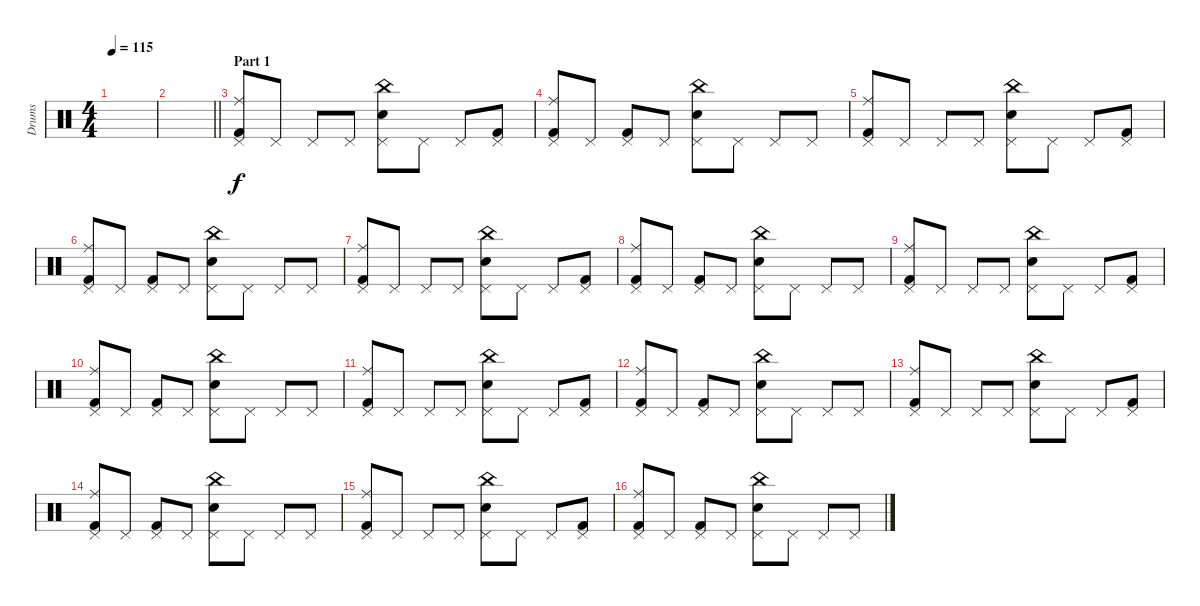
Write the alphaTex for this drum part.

\track ("Drums" "Drums") {instrument percussion}
\staff {score}
\articulation defaults
\ts (4 4)
\tempo 115
\clef neutral
\ks c
|
\barLineRight lightlight
|
\section ("" "Part 1")
("Pedal Hi-Hat (hit)" "Ride (middle)" "Kick (hit) 2").8 "Pedal Hi-Hat (hit)".8 "Pedal Hi-Hat (hit)".8 "Pedal Hi-Hat (hit)".8 ("Pedal Hi-Hat (hit)" "Electric Snare (hit)" "China (hit)").8 "Pedal Hi-Hat (hit)".8 "Pedal Hi-Hat (hit)".8 ("Pedal Hi-Hat (hit)" "Kick (hit) 2").8 |
("Pedal Hi-Hat (hit)" "Ride (middle)" "Kick (hit) 2").8 "Pedal Hi-Hat (hit)".8 ("Pedal Hi-Hat (hit)" "Kick (hit) 2").8 "Pedal Hi-Hat (hit)".8 ("Pedal Hi-Hat (hit)" "Electric Snare (hit)" "China (hit)").8 "Pedal Hi-Hat (hit)".8 "Pedal Hi-Hat (hit)".8 "Pedal Hi-Hat (hit)".8 |
("Pedal Hi-Hat (hit)" "Ride (middle)" "Kick (hit) 2").8 "Pedal Hi-Hat (hit)".8 "Pedal Hi-Hat (hit)".8 "Pedal Hi-Hat (hit)".8 ("Pedal Hi-Hat (hit)" "Electric Snare (hit)" "China (hit)").8 "Pedal Hi-Hat (hit)".8 "Pedal Hi-Hat (hit)".8 ("Pedal Hi-Hat (hit)" "Kick (hit) 2").8 |
("Pedal Hi-Hat (hit)" "Ride (middle)" "Kick (hit) 2").8 "Pedal Hi-Hat (hit)".8 ("Pedal Hi-Hat (hit)" "Kick (hit) 2").8 "Pedal Hi-Hat (hit)".8 ("Pedal Hi-Hat (hit)" "Electric Snare (hit)" "China (hit)").8 "Pedal Hi-Hat (hit)".8 "Pedal Hi-Hat (hit)".8 "Pedal Hi-Hat (hit)".8 |
("Pedal Hi-Hat (hit)" "Ride (middle)" "Kick (hit) 2").8 "Pedal Hi-Hat (hit)".8 "Pedal Hi-Hat (hit)".8 "Pedal Hi-Hat (hit)".8 ("Pedal Hi-Hat (hit)" "Electric Snare (hit)" "China (hit)").8 "Pedal Hi-Hat (hit)".8 "Pedal Hi-Hat (hit)".8 ("Pedal Hi-Hat (hit)" "Kick (hit) 2").8 |
("Pedal Hi-Hat (hit)" "Ride (middle)" "Kick (hit) 2").8 "Pedal Hi-Hat (hit)".8 ("Pedal Hi-Hat (hit)" "Kick (hit) 2").8 "Pedal Hi-Hat (hit)".8 ("Pedal Hi-Hat (hit)" "Electric Snare (hit)" "China (hit)").8 "Pedal Hi-Hat (hit)".8 "Pedal Hi-Hat (hit)".8 "Pedal Hi-Hat (hit)".8 |
("Pedal Hi-Hat (hit)" "Ride (middle)" "Kick (hit) 2").8 "Pedal Hi-Hat (hit)".8 "Pedal Hi-Hat (hit)".8 "Pedal Hi-Hat (hit)".8 ("Pedal Hi-Hat (hit)" "Electric Snare (hit)" "China (hit)").8 "Pedal Hi-Hat (hit)".8 "Pedal Hi-Hat (hit)".8 ("Pedal Hi-Hat (hit)" "Kick (hit) 2").8 |
("Pedal Hi-Hat (hit)" "Ride (middle)" "Kick (hit) 2").8 "Pedal Hi-Hat (hit)".8 ("Pedal Hi-Hat (hit)" "Kick (hit) 2").8 "Pedal Hi-Hat (hit)".8 ("Pedal Hi-Hat (hit)" "Electric Snare (hit)" "China (hit)").8 "Pedal Hi-Hat (hit)".8 "Pedal Hi-Hat (hit)".8 "Pedal Hi-Hat (hit)".8 |
("Pedal Hi-Hat (hit)" "Ride (middle)" "Kick (hit) 2").8 "Pedal Hi-Hat (hit)".8 "Pedal Hi-Hat (hit)".8 "Pedal Hi-Hat (hit)".8 ("Pedal Hi-Hat (hit)" "Electric Snare (hit)" "China (hit)").8 "Pedal Hi-Hat (hit)".8 "Pedal Hi-Hat (hit)".8 ("Pedal Hi-Hat (hit)" "Kick (hit) 2").8 |
("Pedal Hi-Hat (hit)" "Ride (middle)" "Kick (hit) 2").8 "Pedal Hi-Hat (hit)".8 ("Pedal Hi-Hat (hit)" "Kick (hit) 2").8 "Pedal Hi-Hat (hit)".8 ("Pedal Hi-Hat (hit)" "Electric Snare (hit)" "China (hit)").8 "Pedal Hi-Hat (hit)".8 "Pedal Hi-Hat (hit)".8 "Pedal Hi-Hat (hit)".8 |
("Pedal Hi-Hat (hit)" "Ride (middle)" "Kick (hit) 2").8 "Pedal Hi-Hat (hit)".8 "Pedal Hi-Hat (hit)".8 "Pedal Hi-Hat (hit)".8 ("Pedal Hi-Hat (hit)" "Electric Snare (hit)" "China (hit)").8 "Pedal Hi-Hat (hit)".8 "Pedal Hi-Hat (hit)".8 ("Pedal Hi-Hat (hit)" "Kick (hit) 2").8 |
("Pedal Hi-Hat (hit)" "Ride (middle)" "Kick (hit) 2").8 "Pedal Hi-Hat (hit)".8 ("Pedal Hi-Hat (hit)" "Kick (hit) 2").8 "Pedal Hi-Hat (hit)".8 ("Pedal Hi-Hat (hit)" "Electric Snare (hit)" "China (hit)").8 "Pedal Hi-Hat (hit)".8 "Pedal Hi-Hat (hit)".8 "Pedal Hi-Hat (hit)".8 |
("Pedal Hi-Hat (hit)" "Ride (middle)" "Kick (hit) 2").8 "Pedal Hi-Hat (hit)".8 "Pedal Hi-Hat (hit)".8 "Pedal Hi-Hat (hit)".8 ("Pedal Hi-Hat (hit)" "Electric Snare (hit)" "China (hit)").8 "Pedal Hi-Hat (hit)".8 "Pedal Hi-Hat (hit)".8 ("Pedal Hi-Hat (hit)" "Kick (hit) 2").8 |
("Pedal Hi-Hat (hit)" "Ride (middle)" "Kick (hit) 2").8 "Pedal Hi-Hat (hit)".8 ("Pedal Hi-Hat (hit)" "Kick (hit) 2").8 "Pedal Hi-Hat (hit)".8 ("Pedal Hi-Hat (hit)" "Electric Snare (hit)" "China (hit)").8 "Pedal Hi-Hat (hit)".8 "Pedal Hi-Hat (hit)".8 "Pedal Hi-Hat (hit)".8
